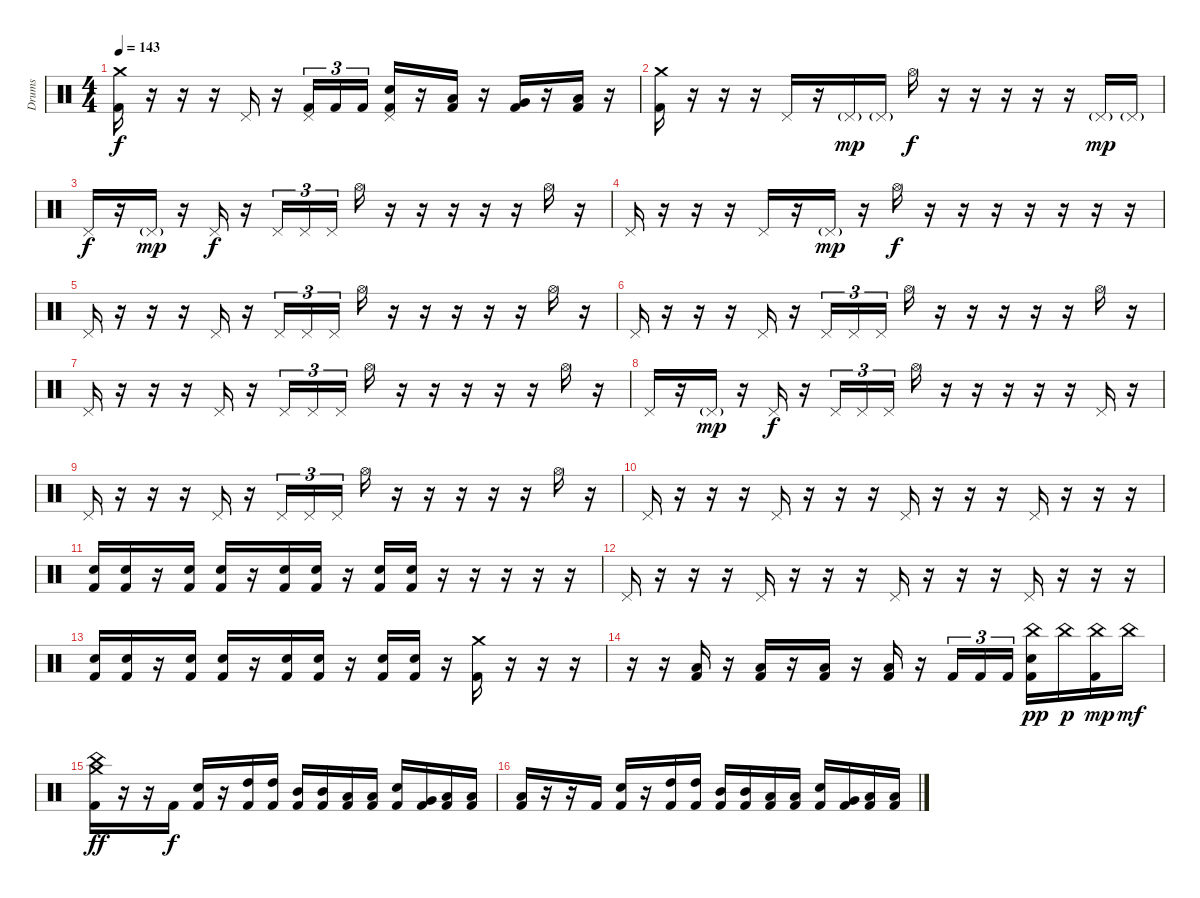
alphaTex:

\track ("Drums" "Drums") {instrument percussion}
\staff {score}
\articulation defaults
\ts (4 4)
\tempo 143
\clef neutral
\ks c
("Crash medium (hit)" "Kick (hit) 2").16{dy f} r.16 r.16 r.16 "Pedal Hi-Hat (hit)".16 r.16 ("Pedal Hi-Hat (hit)" "Kick (hit) 2").16{tu (3 2)} "Kick (hit) 2".16{tu (3 2)} "Kick (hit) 2".16{tu (3 2)} ("Pedal Hi-Hat (hit)" "Electric Snare (hit)" "Kick (hit) 2").16 r.16 ("Low Tom (hit)" "Kick (hit) 2").16 r.16 ("Very Low Tom (hit)" "Kick (hit) 2").16 r.16 ("Low Floor Tom (hit)" "Kick (hit) 2").16 r.16 |
\section ("" "")
("Crash medium (hit)" "Kick (hit) 2").16 r.16 r.16 r.16 "Pedal Hi-Hat (hit)".16 r.16 "Pedal Hi-Hat (hit)"{g}.16{dy mp} "Pedal Hi-Hat (hit)"{g}.16 "Hi-Hat (open)".16{dy f} r.16 r.16 r.16 r.16 r.16 "Pedal Hi-Hat (hit)"{g}.16{dy mp} "Pedal Hi-Hat (hit)"{g}.16 |
"Pedal Hi-Hat (hit)".16{dy f} r.16 "Pedal Hi-Hat (hit)"{g}.16{dy mp} r.16 "Pedal Hi-Hat (hit)".16{dy f} r.16 "Pedal Hi-Hat (hit)".16{tu (3 2)} "Pedal Hi-Hat (hit)".16{tu (3 2)} "Pedal Hi-Hat (hit)".16{tu (3 2)} "Hi-Hat (open)".16 r.16 r.16 r.16 r.16 r.16 "Hi-Hat (open)".16 r.16 |
"Pedal Hi-Hat (hit)".16 r.16 r.16 r.16 "Pedal Hi-Hat (hit)".16 r.16 "Pedal Hi-Hat (hit)"{g}.16{dy mp} r.16 "Hi-Hat (open)".16{dy f} r.16 r.16 r.16 r.16 r.16 r.16 r.16 |
"Pedal Hi-Hat (hit)".16 r.16 r.16 r.16 "Pedal Hi-Hat (hit)".16 r.16 "Pedal Hi-Hat (hit)".16{tu (3 2)} "Pedal Hi-Hat (hit)".16{tu (3 2)} "Pedal Hi-Hat (hit)".16{tu (3 2)} "Hi-Hat (open)".16 r.16 r.16 r.16 r.16 r.16 "Hi-Hat (open)".16 r.16 |
"Pedal Hi-Hat (hit)".16 r.16 r.16 r.16 "Pedal Hi-Hat (hit)".16 r.16 "Pedal Hi-Hat (hit)".16{tu (3 2)} "Pedal Hi-Hat (hit)".16{tu (3 2)} "Pedal Hi-Hat (hit)".16{tu (3 2)} "Hi-Hat (open)".16 r.16 r.16 r.16 r.16 r.16 "Hi-Hat (open)".16 r.16 |
"Pedal Hi-Hat (hit)".16 r.16 r.16 r.16 "Pedal Hi-Hat (hit)".16 r.16 "Pedal Hi-Hat (hit)".16{tu (3 2)} "Pedal Hi-Hat (hit)".16{tu (3 2)} "Pedal Hi-Hat (hit)".16{tu (3 2)} "Hi-Hat (open)".16 r.16 r.16 r.16 r.16 r.16 "Hi-Hat (open)".16 r.16 |
"Pedal Hi-Hat (hit)".16 r.16 "Pedal Hi-Hat (hit)"{g}.16{dy mp} r.16 "Pedal Hi-Hat (hit)".16{dy f} r.16 "Pedal Hi-Hat (hit)".16{tu (3 2)} "Pedal Hi-Hat (hit)".16{tu (3 2)} "Pedal Hi-Hat (hit)".16{tu (3 2)} "Hi-Hat (open)".16 r.16 r.16 r.16 r.16 r.16 "Pedal Hi-Hat (hit)".16 r.16 |
"Pedal Hi-Hat (hit)".16 r.16 r.16 r.16 "Pedal Hi-Hat (hit)".16 r.16 "Pedal Hi-Hat (hit)".16{tu (3 2)} "Pedal Hi-Hat (hit)".16{tu (3 2)} "Pedal Hi-Hat (hit)".16{tu (3 2)} "Hi-Hat (open)".16 r.16 r.16 r.16 r.16 r.16 "Hi-Hat (open)".16 r.16 |
\section ("" "")
"Pedal Hi-Hat (hit)".16 r.16 r.16 r.16 "Pedal Hi-Hat (hit)".16 r.16 r.16 r.16 "Pedal Hi-Hat (hit)".16 r.16 r.16 r.16 "Pedal Hi-Hat (hit)".16 r.16 r.16 r.16 |
("Electric Snare (hit)" "Kick (hit) 2").16 ("Electric Snare (hit)" "Kick (hit) 2").16 r.16 ("Electric Snare (hit)" "Kick (hit) 2").16 ("Electric Snare (hit)" "Kick (hit) 2").16 r.16 ("Electric Snare (hit)" "Kick (hit) 2").16 ("Electric Snare (hit)" "Kick (hit) 2").16 r.16 ("Electric Snare (hit)" "Kick (hit) 2").16 ("Electric Snare (hit)" "Kick (hit) 2").16 r.16 r.16 r.16 r.16 r.16 |
"Pedal Hi-Hat (hit)".16 r.16 r.16 r.16 "Pedal Hi-Hat (hit)".16 r.16 r.16 r.16 "Pedal Hi-Hat (hit)".16 r.16 r.16 r.16 "Pedal Hi-Hat (hit)".16 r.16 r.16 r.16 |
("Electric Snare (hit)" "Kick (hit) 2").16 ("Electric Snare (hit)" "Kick (hit) 2").16 r.16 ("Electric Snare (hit)" "Kick (hit) 2").16 ("Electric Snare (hit)" "Kick (hit) 2").16 r.16 ("Electric Snare (hit)" "Kick (hit) 2").16 ("Electric Snare (hit)" "Kick (hit) 2").16 r.16 ("Electric Snare (hit)" "Kick (hit) 2").16 ("Electric Snare (hit)" "Kick (hit) 2").16 r.16 ("Crash medium (hit)" "Kick (hit) 2").16 r.16 r.16 r.16 |
r.16 r.16 ("Low Floor Tom (hit)" "Kick (hit) 2").16 r.16 ("Low Floor Tom (hit)" "Kick (hit) 2").16 r.16 ("Low Floor Tom (hit)" "Kick (hit) 2").16 r.16 ("Low Floor Tom (hit)" "Kick (hit) 2").16 r.16 "Kick (hit) 2".16{tu (3 2)} "Kick (hit) 2".16{tu (3 2)} "Kick (hit) 2".16{tu (3 2)} ("China (hit)" "Electric Snare (hit)" "Kick (hit) 2").16{dy pp} "China (hit)".16{dy p} ("China (hit)" "Kick (hit) 2").16{dy mp} "China (hit)".16{dy mf} |
\section ("" "")
("Crash medium (hit)" "China (hit)" "Kick (hit) 2").16{dy ff} r.16 r.16 "Kick (hit) 2".16{dy f} ("Electric Snare (hit)" "Kick (hit) 2").16 r.16 ("High Tom (hit)" "Kick (hit) 2").16 ("High Tom (hit)" "Kick (hit) 2").16 ("Mid Tom (hit)" "Kick (hit) 2").16 ("Mid Tom (hit)" "Kick (hit) 2").16 ("Low Tom (hit)" "Kick (hit) 2").16 ("Low Tom (hit)" "Kick (hit) 2").16 ("Electric Snare (hit)" "Kick (hit) 2").16 ("Very Low Tom (hit)" "Kick (hit) 2").16 ("Low Floor Tom (hit)" "Kick (hit) 2").16 ("Low Floor Tom (hit)" "Kick (hit) 2").16 |
("Low Floor Tom (hit)" "Kick (hit) 2").16 r.16 r.16 "Kick (hit) 2".16 ("Electric Snare (hit)" "Kick (hit) 2").16 r.16 ("High Tom (hit)" "Kick (hit) 2").16 ("High Tom (hit)" "Kick (hit) 2").16 ("Mid Tom (hit)" "Kick (hit) 2").16 ("Mid Tom (hit)" "Kick (hit) 2").16 ("Low Tom (hit)" "Kick (hit) 2").16 ("Low Tom (hit)" "Kick (hit) 2").16 ("Electric Snare (hit)" "Kick (hit) 2").16 ("Very Low Tom (hit)" "Kick (hit) 2").16 ("Low Floor Tom (hit)" "Kick (hit) 2").16 ("Low Floor Tom (hit)" "Kick (hit) 2").16
